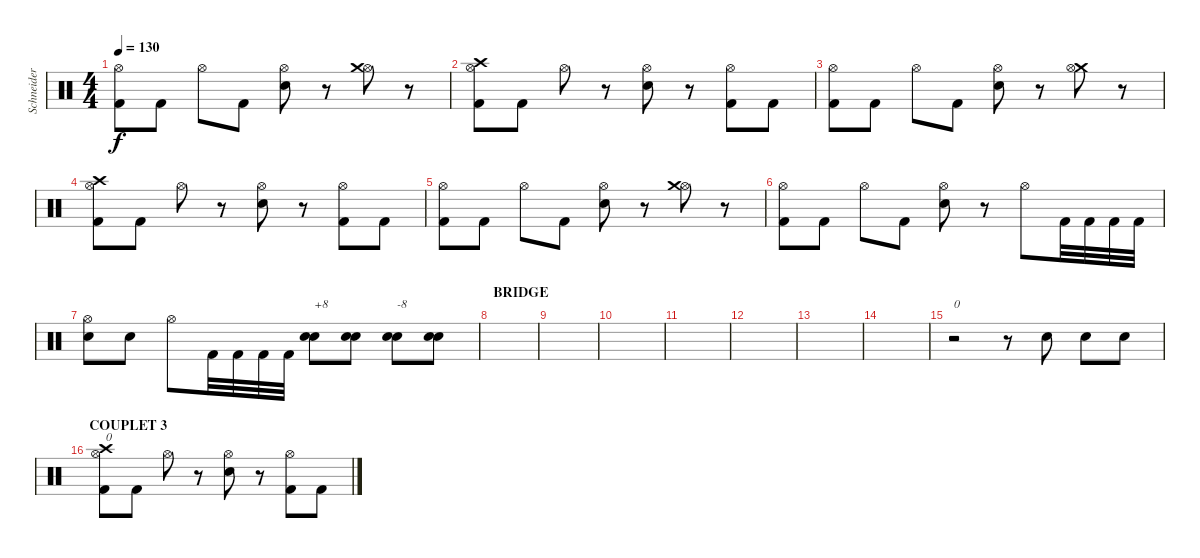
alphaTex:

\track ("Schneider - Drums" "Schneider ") {instrument percussion}
\staff {score}
\articulation defaults
\ts (4 4)
\tempo 130
\clef neutral
\ks c
("Kick (hit) 2" "Hi-Hat (open)").8{dy f} "Kick (hit) 2".8 "Hi-Hat (open)".8 "Kick (hit) 2".8 ("Electric Snare (hit)" "Hi-Hat (open)").8 r.8 ("Hi-Hat (open)" "Crash medium (hit)").8 r.8 |
("Kick (hit) 2" "Hi-Hat (open)" "Crash high (hit)").8 "Kick (hit) 2".8 "Hi-Hat (open)".8 r.8 ("Electric Snare (hit)" "Hi-Hat (open)").8 r.8 ("Kick (hit) 2" "Hi-Hat (open)").8 "Kick (hit) 2".8 |
("Kick (hit) 2" "Hi-Hat (open)").8 "Kick (hit) 2".8 "Hi-Hat (open)".8 "Kick (hit) 2".8 ("Electric Snare (hit)" "Hi-Hat (open)").8 r.8 ("Crash medium (hit)" "Hi-Hat (open)").8 r.8 |
("Kick (hit) 2" "Hi-Hat (open)" "Crash high (hit)").8 "Kick (hit) 2".8 "Hi-Hat (open)".8 r.8 ("Electric Snare (hit)" "Hi-Hat (open)").8 r.8 ("Kick (hit) 2" "Hi-Hat (open)").8 "Kick (hit) 2".8 |
("Kick (hit) 2" "Hi-Hat (open)").8 "Kick (hit) 2".8 "Hi-Hat (open)".8 "Kick (hit) 2".8 ("Electric Snare (hit)" "Hi-Hat (open)").8 r.8 ("Hi-Hat (open)" "Crash medium (hit)").8 r.8 |
("Kick (hit) 2" "Hi-Hat (open)").8 "Kick (hit) 2".8 "Hi-Hat (open)".8 "Kick (hit) 2".8 ("Electric Snare (hit)" "Hi-Hat (open)").8 r.8 "Hi-Hat (open)".8 "Kick (hit) 2".32 "Kick (hit) 2".32 "Kick (hit) 2".32 "Kick (hit) 2".32 |
("Electric Snare (hit)" "Hi-Hat (open)").8 "Electric Snare (hit)".8 "Hi-Hat (open)".8 "Kick (hit) 2".32 "Kick (hit) 2".32 "Kick (hit) 2".32 "Kick (hit) 2".32 ("Electric Snare (hit)" "Electric Snare (hit)").8{txt "+8" balance 16} ("Electric Snare (hit)" "Electric Snare (hit)").8 ("Electric Snare (hit)" "Electric Snare (hit)").8{txt "-8" balance 0} ("Electric Snare (hit)" "Electric Snare (hit)").8 |
\section ("" "BRIDGE ")
|
|
|
|
|
|
|
r.2{txt "0" balance 8} r.8 "Electric Snare (hit)".8 "Electric Snare (hit)".8 "Electric Snare (hit)".8 |
\section ("" "COUPLET 3")
("Kick (hit) 2" "Hi-Hat (open)" "Crash high (hit)").8{txt "0" balance 8} "Kick (hit) 2".8 "Hi-Hat (open)".8 r.8 ("Electric Snare (hit)" "Hi-Hat (open)").8 r.8 ("Kick (hit) 2" "Hi-Hat (open)").8 "Kick (hit) 2".8
